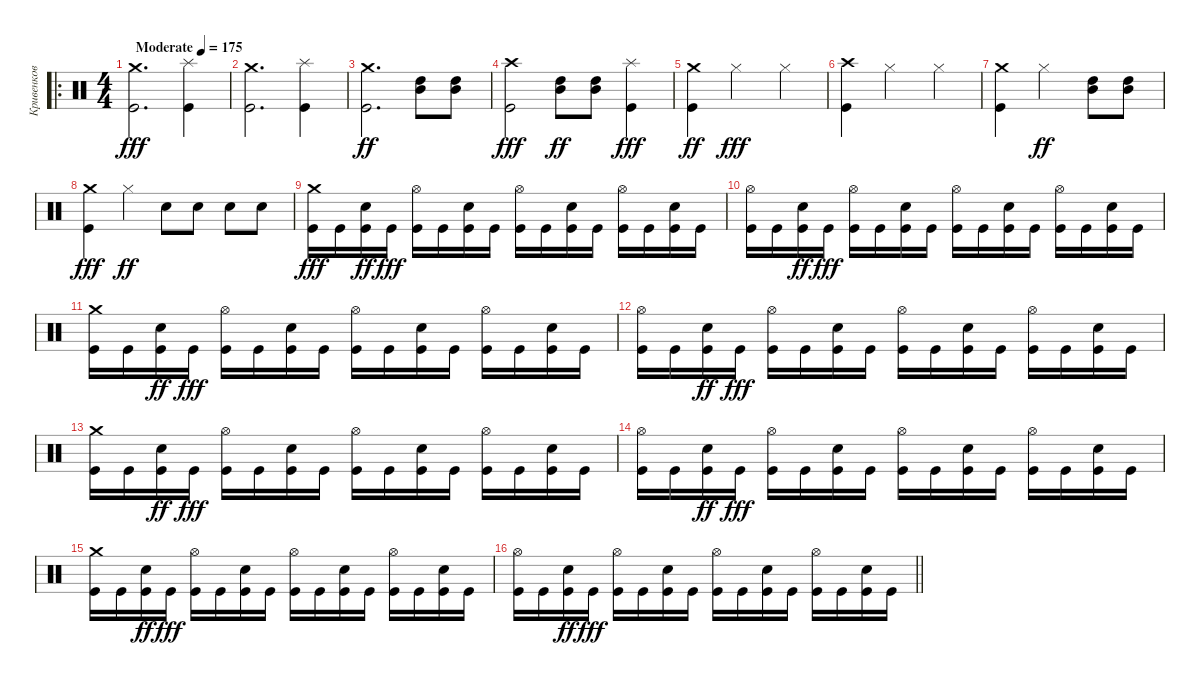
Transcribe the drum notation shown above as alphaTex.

\track ("Кривенков" "Кривенков") {instrument percussion}
\staff {score}
\articulation defaults
\ro
\ts (4 4)
\tempo (175 "Moderate")
\clef neutral
\ks c
("Crash medium (hit)" "Kick (hit)").2{d dy fff} ("Splash (hit)" "Kick (hit)").4 |
("Crash medium (hit)" "Kick (hit)").2{d} ("Splash (hit)" "Kick (hit)").4 |
("Kick (hit)" "Crash medium (hit)").2{d dy ff} ("Mid Tom (hit)" "High Tom (hit)").8 ("High Tom (hit)" "Mid Tom (hit)").8 |
("Crash high (hit)" "Kick (hit)").2{dy fff} ("High Tom (hit)" "Mid Tom (hit)").8{dy ff} ("High Tom (hit)" "Mid Tom (hit)").8 ("Splash (hit)" "Kick (hit)").4{dy fff} |
("Kick (hit)" "Crash medium (hit)").4{dy ff} "Hi-Hat (closed)".2{dy fff} "Hi-Hat (closed)".4 |
("Crash high (hit)" "Kick (hit)").4 "Hi-Hat (closed)".2 "Hi-Hat (closed)".4 |
("Crash medium (hit)" "Kick (hit)").4 "Hi-Hat (closed)".2{dy ff} ("High Tom (hit)" "Mid Tom (hit)").8 ("High Tom (hit)" "Mid Tom (hit)").8 |
("Crash medium (hit)" "Kick (hit)").4{dy fff} "Hi-Hat (closed)".4{dy ff} "Snare (hit) 2".8 "Snare (hit) 2".8 "Snare (hit) 2".8 "Snare (hit) 2".8 |
("Crash medium (hit)" "Kick (hit)").16{dy fff} "Kick (hit)".16 ("Kick (hit)" "Snare (hit) 2").16{dy ff} "Kick (hit)".16{dy fff} ("Hi-Hat (open)" "Kick (hit)").16 "Kick (hit)".16 ("Snare (hit) 2" "Kick (hit)").16 "Kick (hit)".16 ("Hi-Hat (open)" "Kick (hit)").16 "Kick (hit)".16 ("Snare (hit) 2" "Kick (hit)").16 "Kick (hit)".16 ("Hi-Hat (open)" "Kick (hit)").16 "Kick (hit)".16 ("Snare (hit) 2" "Kick (hit)").16 "Kick (hit)".16 |
("Hi-Hat (open)" "Kick (hit)").16 "Kick (hit)".16 ("Kick (hit)" "Snare (hit) 2").16{dy ff} "Kick (hit)".16{dy fff} ("Hi-Hat (open)" "Kick (hit)").16 "Kick (hit)".16 ("Snare (hit) 2" "Kick (hit)").16 "Kick (hit)".16 ("Hi-Hat (open)" "Kick (hit)").16 "Kick (hit)".16 ("Snare (hit) 2" "Kick (hit)").16 "Kick (hit)".16 ("Hi-Hat (open)" "Kick (hit)").16 "Kick (hit)".16 ("Snare (hit) 2" "Kick (hit)").16 "Kick (hit)".16 |
("Crash medium (hit)" "Kick (hit)").16 "Kick (hit)".16 ("Kick (hit)" "Snare (hit) 2").16{dy ff} "Kick (hit)".16{dy fff} ("Hi-Hat (open)" "Kick (hit)").16 "Kick (hit)".16 ("Snare (hit) 2" "Kick (hit)").16 "Kick (hit)".16 ("Hi-Hat (open)" "Kick (hit)").16 "Kick (hit)".16 ("Snare (hit) 2" "Kick (hit)").16 "Kick (hit)".16 ("Hi-Hat (open)" "Kick (hit)").16 "Kick (hit)".16 ("Snare (hit) 2" "Kick (hit)").16 "Kick (hit)".16 |
("Hi-Hat (open)" "Kick (hit)").16 "Kick (hit)".16 ("Kick (hit)" "Snare (hit) 2").16{dy ff} "Kick (hit)".16{dy fff} ("Hi-Hat (open)" "Kick (hit)").16 "Kick (hit)".16 ("Snare (hit) 2" "Kick (hit)").16 "Kick (hit)".16 ("Hi-Hat (open)" "Kick (hit)").16 "Kick (hit)".16 ("Snare (hit) 2" "Kick (hit)").16 "Kick (hit)".16 ("Hi-Hat (open)" "Kick (hit)").16 "Kick (hit)".16 ("Snare (hit) 2" "Kick (hit)").16 "Kick (hit)".16 |
("Crash medium (hit)" "Kick (hit)").16 "Kick (hit)".16 ("Kick (hit)" "Snare (hit) 2").16{dy ff} "Kick (hit)".16{dy fff} ("Hi-Hat (open)" "Kick (hit)").16 "Kick (hit)".16 ("Snare (hit) 2" "Kick (hit)").16 "Kick (hit)".16 ("Hi-Hat (open)" "Kick (hit)").16 "Kick (hit)".16 ("Snare (hit) 2" "Kick (hit)").16 "Kick (hit)".16 ("Hi-Hat (open)" "Kick (hit)").16 "Kick (hit)".16 ("Snare (hit) 2" "Kick (hit)").16 "Kick (hit)".16 |
("Hi-Hat (open)" "Kick (hit)").16 "Kick (hit)".16 ("Kick (hit)" "Snare (hit) 2").16{dy ff} "Kick (hit)".16{dy fff} ("Hi-Hat (open)" "Kick (hit)").16 "Kick (hit)".16 ("Snare (hit) 2" "Kick (hit)").16 "Kick (hit)".16 ("Hi-Hat (open)" "Kick (hit)").16 "Kick (hit)".16 ("Snare (hit) 2" "Kick (hit)").16 "Kick (hit)".16 ("Hi-Hat (open)" "Kick (hit)").16 "Kick (hit)".16 ("Snare (hit) 2" "Kick (hit)").16 "Kick (hit)".16 |
("Crash medium (hit)" "Kick (hit)").16 "Kick (hit)".16 ("Kick (hit)" "Snare (hit) 2").16{dy ff} "Kick (hit)".16{dy fff} ("Hi-Hat (open)" "Kick (hit)").16 "Kick (hit)".16 ("Snare (hit) 2" "Kick (hit)").16 "Kick (hit)".16 ("Hi-Hat (open)" "Kick (hit)").16 "Kick (hit)".16 ("Snare (hit) 2" "Kick (hit)").16 "Kick (hit)".16 ("Hi-Hat (open)" "Kick (hit)").16 "Kick (hit)".16 ("Snare (hit) 2" "Kick (hit)").16 "Kick (hit)".16 |
\barLineRight lightlight
("Hi-Hat (open)" "Kick (hit)").16 "Kick (hit)".16 ("Kick (hit)" "Snare (hit) 2").16{dy ff} "Kick (hit)".16{dy fff} ("Hi-Hat (open)" "Kick (hit)").16 "Kick (hit)".16 ("Snare (hit) 2" "Kick (hit)").16 "Kick (hit)".16 ("Hi-Hat (open)" "Kick (hit)").16 "Kick (hit)".16 ("Snare (hit) 2" "Kick (hit)").16 "Kick (hit)".16 ("Hi-Hat (open)" "Kick (hit)").16 "Kick (hit)".16 ("Snare (hit) 2" "Kick (hit)").16 "Kick (hit)".16
